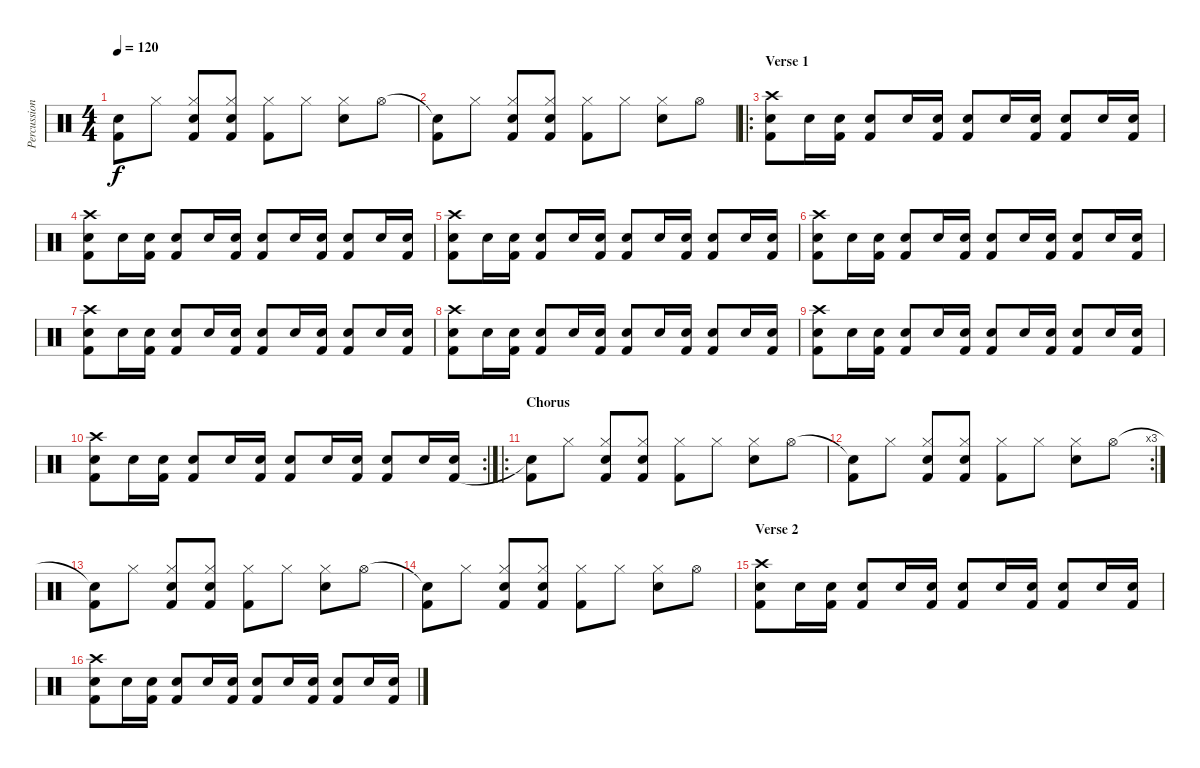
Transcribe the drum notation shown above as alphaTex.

\track ("Percussion" "Percussion") {instrument percussion}
\staff {score}
\articulation defaults
\ts (4 4)
\tempo 120
\clef neutral
\ks c
("Snare (hit)"{t} "Kick (hit) 2").8{dy f} "Hi-Hat (closed)".8 ("Hi-Hat (closed)" "Kick (hit) 2" "Electric Snare (hit)").8 ("Hi-Hat (closed)" "Kick (hit) 2" "Electric Snare (hit)").8 ("Hi-Hat (closed)" "Kick (hit) 2").8 "Hi-Hat (closed)".8 ("Hi-Hat (closed)" "Electric Snare (hit)").8 "Hi-Hat (open)".8 |
("Snare (hit)"{t} "Kick (hit) 2").8 "Hi-Hat (closed)".8 ("Hi-Hat (closed)" "Kick (hit) 2" "Electric Snare (hit)").8 ("Hi-Hat (closed)" "Kick (hit) 2" "Electric Snare (hit)").8 ("Hi-Hat (closed)" "Kick (hit) 2").8 "Hi-Hat (closed)".8 ("Hi-Hat (closed)" "Electric Snare (hit)").8 "Hi-Hat (open)".8 |
\ro
\section ("" "Verse 1")
("Crash high (hit)" "Kick (hit) 2" "Electric Snare (hit)").8 "Electric Snare (hit)".16 ("Kick (hit) 2" "Electric Snare (hit)").16 ("Kick (hit) 2" "Electric Snare (hit)").8 "Electric Snare (hit)".16 ("Kick (hit) 2" "Electric Snare (hit)").16 ("Kick (hit) 2" "Electric Snare (hit)").8 "Electric Snare (hit)".16 ("Kick (hit) 2" "Electric Snare (hit)").16 ("Kick (hit) 2" "Electric Snare (hit)").8 "Electric Snare (hit)".16 ("Kick (hit) 2" "Electric Snare (hit)").16 |
("Crash high (hit)" "Kick (hit) 2" "Electric Snare (hit)").8 "Electric Snare (hit)".16 ("Kick (hit) 2" "Electric Snare (hit)").16 ("Kick (hit) 2" "Electric Snare (hit)").8 "Electric Snare (hit)".16 ("Kick (hit) 2" "Electric Snare (hit)").16 ("Kick (hit) 2" "Electric Snare (hit)").8 "Electric Snare (hit)".16 ("Kick (hit) 2" "Electric Snare (hit)").16 ("Kick (hit) 2" "Electric Snare (hit)").8 "Electric Snare (hit)".16 ("Kick (hit) 2" "Electric Snare (hit)").16 |
("Crash high (hit)" "Kick (hit) 2" "Electric Snare (hit)").8 "Electric Snare (hit)".16 ("Kick (hit) 2" "Electric Snare (hit)").16 ("Kick (hit) 2" "Electric Snare (hit)").8 "Electric Snare (hit)".16 ("Kick (hit) 2" "Electric Snare (hit)").16 ("Kick (hit) 2" "Electric Snare (hit)").8 "Electric Snare (hit)".16 ("Kick (hit) 2" "Electric Snare (hit)").16 ("Kick (hit) 2" "Electric Snare (hit)").8 "Electric Snare (hit)".16 ("Kick (hit) 2" "Electric Snare (hit)").16 |
("Crash high (hit)" "Kick (hit) 2" "Electric Snare (hit)").8 "Electric Snare (hit)".16 ("Kick (hit) 2" "Electric Snare (hit)").16 ("Kick (hit) 2" "Electric Snare (hit)").8 "Electric Snare (hit)".16 ("Kick (hit) 2" "Electric Snare (hit)").16 ("Kick (hit) 2" "Electric Snare (hit)").8 "Electric Snare (hit)".16 ("Kick (hit) 2" "Electric Snare (hit)").16 ("Kick (hit) 2" "Electric Snare (hit)").8 "Electric Snare (hit)".16 ("Kick (hit) 2" "Electric Snare (hit)").16 |
("Crash high (hit)" "Kick (hit) 2" "Electric Snare (hit)").8 "Electric Snare (hit)".16 ("Kick (hit) 2" "Electric Snare (hit)").16 ("Kick (hit) 2" "Electric Snare (hit)").8 "Electric Snare (hit)".16 ("Kick (hit) 2" "Electric Snare (hit)").16 ("Kick (hit) 2" "Electric Snare (hit)").8 "Electric Snare (hit)".16 ("Kick (hit) 2" "Electric Snare (hit)").16 ("Kick (hit) 2" "Electric Snare (hit)").8 "Electric Snare (hit)".16 ("Kick (hit) 2" "Electric Snare (hit)").16 |
("Crash high (hit)" "Kick (hit) 2" "Electric Snare (hit)").8 "Electric Snare (hit)".16 ("Kick (hit) 2" "Electric Snare (hit)").16 ("Kick (hit) 2" "Electric Snare (hit)").8 "Electric Snare (hit)".16 ("Kick (hit) 2" "Electric Snare (hit)").16 ("Kick (hit) 2" "Electric Snare (hit)").8 "Electric Snare (hit)".16 ("Kick (hit) 2" "Electric Snare (hit)").16 ("Kick (hit) 2" "Electric Snare (hit)").8 "Electric Snare (hit)".16 ("Kick (hit) 2" "Electric Snare (hit)").16 |
("Crash high (hit)" "Kick (hit) 2" "Electric Snare (hit)").8 "Electric Snare (hit)".16 ("Kick (hit) 2" "Electric Snare (hit)").16 ("Kick (hit) 2" "Electric Snare (hit)").8 "Electric Snare (hit)".16 ("Kick (hit) 2" "Electric Snare (hit)").16 ("Kick (hit) 2" "Electric Snare (hit)").8 "Electric Snare (hit)".16 ("Kick (hit) 2" "Electric Snare (hit)").16 ("Kick (hit) 2" "Electric Snare (hit)").8 "Electric Snare (hit)".16 ("Kick (hit) 2" "Electric Snare (hit)").16 |
\rc 2
("Crash high (hit)" "Kick (hit) 2" "Electric Snare (hit)").8 "Electric Snare (hit)".16 ("Kick (hit) 2" "Electric Snare (hit)").16 ("Kick (hit) 2" "Electric Snare (hit)").8 "Electric Snare (hit)".16 ("Kick (hit) 2" "Electric Snare (hit)").16 ("Kick (hit) 2" "Electric Snare (hit)").8 "Electric Snare (hit)".16 ("Kick (hit) 2" "Electric Snare (hit)").16 ("Kick (hit) 2" "Electric Snare (hit)").8 "Electric Snare (hit)".16 ("Kick (hit) 2" "Electric Snare (hit)").16 |
\ro
\section ("" "Chorus")
("Snare (hit)"{t} "Kick (hit) 2").8 "Hi-Hat (closed)".8 ("Hi-Hat (closed)" "Kick (hit) 2" "Electric Snare (hit)").8 ("Hi-Hat (closed)" "Kick (hit) 2" "Electric Snare (hit)").8 ("Hi-Hat (closed)" "Kick (hit) 2").8 "Hi-Hat (closed)".8 ("Hi-Hat (closed)" "Electric Snare (hit)").8 "Hi-Hat (open)".8 |
\rc 3
("Snare (hit)"{t} "Kick (hit) 2").8 "Hi-Hat (closed)".8 ("Hi-Hat (closed)" "Kick (hit) 2" "Electric Snare (hit)").8 ("Hi-Hat (closed)" "Kick (hit) 2" "Electric Snare (hit)").8 ("Hi-Hat (closed)" "Kick (hit) 2").8 "Hi-Hat (closed)".8 ("Hi-Hat (closed)" "Electric Snare (hit)").8 "Hi-Hat (open)".8 |
("Snare (hit)"{t} "Kick (hit) 2").8 "Hi-Hat (closed)".8 ("Hi-Hat (closed)" "Kick (hit) 2" "Electric Snare (hit)").8 ("Hi-Hat (closed)" "Kick (hit) 2" "Electric Snare (hit)").8 ("Hi-Hat (closed)" "Kick (hit) 2").8 "Hi-Hat (closed)".8 ("Hi-Hat (closed)" "Electric Snare (hit)").8 "Hi-Hat (open)".8 |
("Snare (hit)"{t} "Kick (hit) 2").8 "Hi-Hat (closed)".8 ("Hi-Hat (closed)" "Kick (hit) 2" "Electric Snare (hit)").8 ("Hi-Hat (closed)" "Kick (hit) 2" "Electric Snare (hit)").8 ("Hi-Hat (closed)" "Kick (hit) 2").8 "Hi-Hat (closed)".8 ("Hi-Hat (closed)" "Electric Snare (hit)").8 "Hi-Hat (open)".8 |
\section ("" "Verse 2")
("Crash high (hit)" "Kick (hit) 2" "Electric Snare (hit)").8 "Electric Snare (hit)".16 ("Kick (hit) 2" "Electric Snare (hit)").16 ("Kick (hit) 2" "Electric Snare (hit)").8 "Electric Snare (hit)".16 ("Kick (hit) 2" "Electric Snare (hit)").16 ("Kick (hit) 2" "Electric Snare (hit)").8 "Electric Snare (hit)".16 ("Kick (hit) 2" "Electric Snare (hit)").16 ("Kick (hit) 2" "Electric Snare (hit)").8 "Electric Snare (hit)".16 ("Kick (hit) 2" "Electric Snare (hit)").16 |
("Crash high (hit)" "Kick (hit) 2" "Electric Snare (hit)").8 "Electric Snare (hit)".16 ("Kick (hit) 2" "Electric Snare (hit)").16 ("Kick (hit) 2" "Electric Snare (hit)").8 "Electric Snare (hit)".16 ("Kick (hit) 2" "Electric Snare (hit)").16 ("Kick (hit) 2" "Electric Snare (hit)").8 "Electric Snare (hit)".16 ("Kick (hit) 2" "Electric Snare (hit)").16 ("Kick (hit) 2" "Electric Snare (hit)").8 "Electric Snare (hit)".16 ("Kick (hit) 2" "Electric Snare (hit)").16
